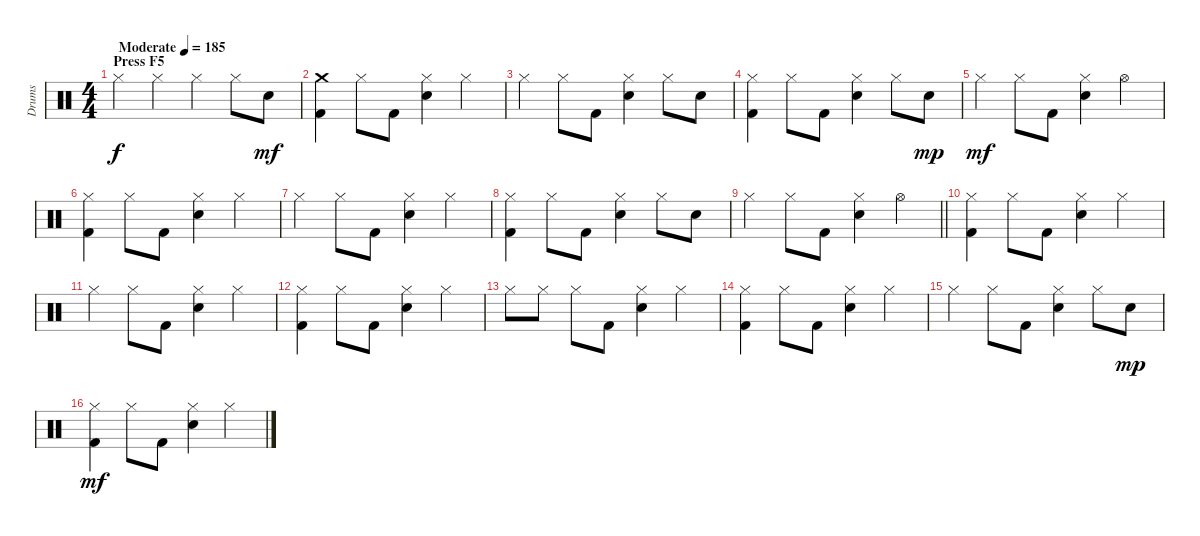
\track ("Drums" "Drums") {instrument percussion}
\staff {score}
\articulation defaults
\ts (4 4)
\section ("" "Press F5")
\tempo (185 "Moderate")
\clef neutral
\ks c "Hi-Hat (closed)".4{dy f} "Hi-Hat (closed)".4 "Hi-Hat (closed)".4 "Hi-Hat (closed)".8 "Snare (hit) 2".8{dy mf}
|
("Crash medium (hit)" "Kick (hit) 2").4 "Hi-Hat (closed)".8 "Kick (hit) 2".8 ("Hi-Hat (closed)" "Snare (hit) 2").4 "Hi-Hat (closed)".4 |
"Hi-Hat (closed)".4 "Hi-Hat (closed)".8 "Kick (hit) 2".8 ("Hi-Hat (closed)" "Snare (hit) 2").4 "Hi-Hat (closed)".8 "Snare (hit) 2".8 |
("Hi-Hat (closed)" "Kick (hit) 2").4 "Hi-Hat (closed)".8 "Kick (hit) 2".8 ("Hi-Hat (closed)" "Snare (hit) 2").4 "Hi-Hat (closed)".8 "Snare (hit) 2".8{dy mp} |
"Hi-Hat (closed)".4{dy mf} "Hi-Hat (closed)".8 "Kick (hit) 2".8 ("Hi-Hat (closed)" "Snare (hit) 2").4 "Hi-Hat (open)".4 |
("Hi-Hat (closed)" "Kick (hit) 2").4 "Hi-Hat (closed)".8 "Kick (hit) 2".8 ("Hi-Hat (closed)" "Snare (hit) 2").4 "Hi-Hat (closed)".4 |
"Hi-Hat (closed)".4 "Hi-Hat (closed)".8 "Kick (hit) 2".8 ("Hi-Hat (closed)" "Snare (hit) 2").4 "Hi-Hat (closed)".4 |
("Hi-Hat (closed)" "Kick (hit) 2").4 "Hi-Hat (closed)".8 "Kick (hit) 2".8 ("Hi-Hat (closed)" "Snare (hit) 2").4 "Hi-Hat (closed)".8 "Snare (hit) 2".8 |
\barLineRight lightlight "Hi-Hat (closed)".4 "Hi-Hat (closed)".8 "Kick (hit) 2".8
("Hi-Hat (closed)" "Snare (hit) 2").4 "Hi-Hat (open)".4 |
\section ("" "")
("Hi-Hat (closed)" "Kick (hit) 2").4 "Hi-Hat (closed)".8 "Kick (hit) 2".8 ("Hi-Hat (closed)" "Snare (hit) 2").4 "Hi-Hat (closed)".4 |
"Hi-Hat (closed)".4 "Hi-Hat (closed)".8 "Kick (hit) 2".8 ("Hi-Hat (closed)" "Snare (hit) 2").4 "Hi-Hat (closed)".4 |
("Hi-Hat (closed)" "Kick (hit) 2").4 "Hi-Hat (closed)".8 "Kick (hit) 2".8 ("Hi-Hat (closed)" "Snare (hit) 2").4 "Hi-Hat (closed)".4 |
"Hi-Hat (closed)".8 "Hi-Hat (closed)".8 "Hi-Hat (closed)".8 "Kick (hit) 2".8 ("Hi-Hat (closed)" "Snare (hit) 2").4 "Hi-Hat (closed)".4 |
("Hi-Hat (closed)" "Kick (hit) 2").4 "Hi-Hat (closed)".8 "Kick (hit) 2".8 ("Hi-Hat (closed)" "Snare (hit) 2").4 "Hi-Hat (closed)".4 |
"Hi-Hat (closed)".4 "Hi-Hat (closed)".8 "Kick (hit) 2".8 ("Hi-Hat (closed)" "Snare (hit) 2").4 "Hi-Hat (closed)".8 "Snare (hit) 2".8{dy mp} |
("Hi-Hat (closed)" "Kick (hit) 2").4{dy mf} "Hi-Hat (closed)".8 "Kick (hit) 2".8 ("Hi-Hat (closed)" "Snare (hit) 2").4 "Hi-Hat (closed)".4
